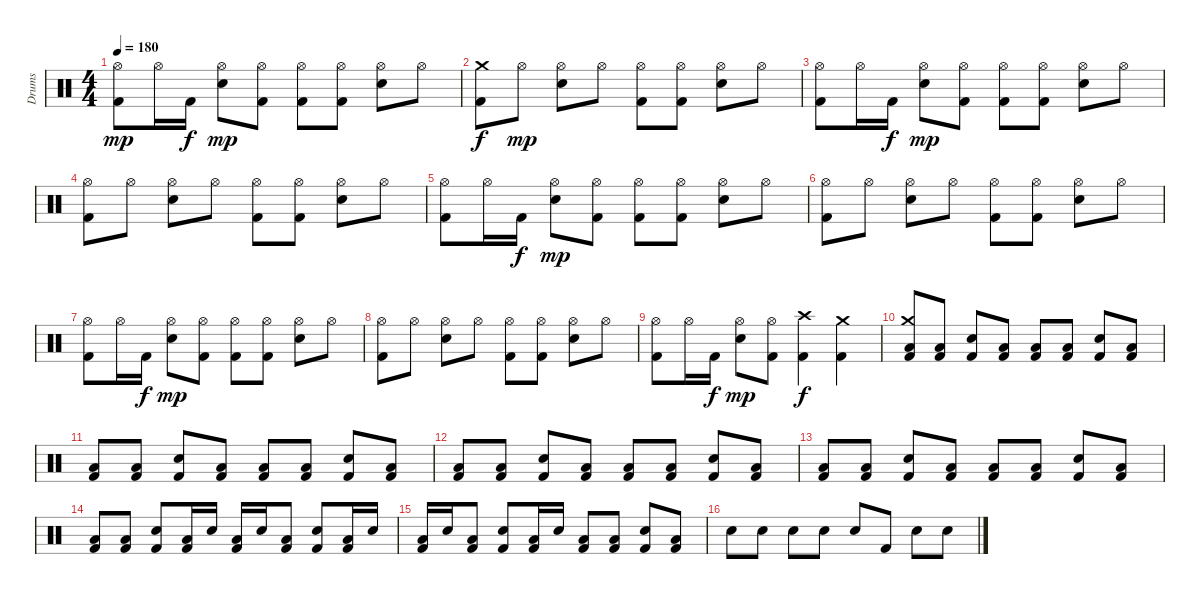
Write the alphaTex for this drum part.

\track ("Drums" "Drums") {instrument percussion}
\staff {score}
\articulation defaults
\ts (4 4)
\tempo 180
\clef neutral
\ks c
("Hi-Hat (open)" "Kick (hit) 2").8{dy mp} "Hi-Hat (open)".16 "Kick (hit) 2".16{dy f} ("Hi-Hat (open)" "Snare (hit) 2").8{dy mp} ("Hi-Hat (open)" "Kick (hit) 2").8 ("Hi-Hat (open)" "Kick (hit) 2").8 ("Hi-Hat (open)" "Kick (hit) 2").8 ("Hi-Hat (open)" "Snare (hit) 2").8 "Hi-Hat (open)".8 |
("Crash medium (hit)" "Kick (hit) 2").8{dy f} "Hi-Hat (open)".8{dy mp} ("Hi-Hat (open)" "Snare (hit) 2").8 "Hi-Hat (open)".8 ("Hi-Hat (open)" "Kick (hit) 2").8 ("Hi-Hat (open)" "Kick (hit) 2").8 ("Hi-Hat (open)" "Snare (hit) 2").8 "Hi-Hat (open)".8 |
("Hi-Hat (open)" "Kick (hit) 2").8 "Hi-Hat (open)".16 "Kick (hit) 2".16{dy f} ("Hi-Hat (open)" "Snare (hit) 2").8{dy mp} ("Hi-Hat (open)" "Kick (hit) 2").8 ("Hi-Hat (open)" "Kick (hit) 2").8 ("Hi-Hat (open)" "Kick (hit) 2").8 ("Hi-Hat (open)" "Snare (hit) 2").8 "Hi-Hat (open)".8 |
("Hi-Hat (open)" "Kick (hit) 2").8 "Hi-Hat (open)".8 ("Hi-Hat (open)" "Snare (hit) 2").8 "Hi-Hat (open)".8 ("Hi-Hat (open)" "Kick (hit) 2").8 ("Hi-Hat (open)" "Kick (hit) 2").8 ("Hi-Hat (open)" "Snare (hit) 2").8 "Hi-Hat (open)".8 |
("Hi-Hat (open)" "Kick (hit) 2").8 "Hi-Hat (open)".16 "Kick (hit) 2".16{dy f} ("Hi-Hat (open)" "Snare (hit) 2").8{dy mp} ("Hi-Hat (open)" "Kick (hit) 2").8 ("Hi-Hat (open)" "Kick (hit) 2").8 ("Hi-Hat (open)" "Kick (hit) 2").8 ("Hi-Hat (open)" "Snare (hit) 2").8 "Hi-Hat (open)".8 |
("Hi-Hat (open)" "Kick (hit) 2").8 "Hi-Hat (open)".8 ("Hi-Hat (open)" "Snare (hit) 2").8 "Hi-Hat (open)".8 ("Hi-Hat (open)" "Kick (hit) 2").8 ("Hi-Hat (open)" "Kick (hit) 2").8 ("Hi-Hat (open)" "Snare (hit) 2").8 "Hi-Hat (open)".8 |
("Hi-Hat (open)" "Kick (hit) 2").8 "Hi-Hat (open)".16 "Kick (hit) 2".16{dy f} ("Hi-Hat (open)" "Snare (hit) 2").8{dy mp} ("Hi-Hat (open)" "Kick (hit) 2").8 ("Hi-Hat (open)" "Kick (hit) 2").8 ("Hi-Hat (open)" "Kick (hit) 2").8 ("Hi-Hat (open)" "Snare (hit) 2").8 "Hi-Hat (open)".8 |
("Hi-Hat (open)" "Kick (hit) 2").8 "Hi-Hat (open)".8 ("Hi-Hat (open)" "Snare (hit) 2").8 "Hi-Hat (open)".8 ("Hi-Hat (open)" "Kick (hit) 2").8 ("Hi-Hat (open)" "Kick (hit) 2").8 ("Hi-Hat (open)" "Snare (hit) 2").8 "Hi-Hat (open)".8 |
("Hi-Hat (open)" "Kick (hit) 2").8 "Hi-Hat (open)".16 "Kick (hit) 2".16{dy f} ("Hi-Hat (open)" "Snare (hit) 2").8{dy mp} ("Hi-Hat (open)" "Kick (hit) 2").8 ("Crash high (hit)" "Kick (hit) 2").4{dy f} ("Crash medium (hit)" "Kick (hit) 2").4 |
("Crash medium (hit)" "Low Floor Tom (hit)" "Kick (hit) 2").8 ("Low Floor Tom (hit)" "Kick (hit) 2").8 ("Snare (hit) 2" "Kick (hit) 2").8 ("Low Floor Tom (hit)" "Kick (hit) 2").8 ("Low Floor Tom (hit)" "Kick (hit) 2").8 ("Low Floor Tom (hit)" "Kick (hit) 2").8 ("Snare (hit) 2" "Kick (hit) 2").8 ("Low Floor Tom (hit)" "Kick (hit) 2").8 |
("Low Floor Tom (hit)" "Kick (hit) 2").8 ("Low Floor Tom (hit)" "Kick (hit) 2").8 ("Snare (hit) 2" "Kick (hit) 2").8 ("Low Floor Tom (hit)" "Kick (hit) 2").8 ("Low Floor Tom (hit)" "Kick (hit) 2").8 ("Low Floor Tom (hit)" "Kick (hit) 2").8 ("Snare (hit) 2" "Kick (hit) 2").8 ("Low Floor Tom (hit)" "Kick (hit) 2").8 |
("Low Floor Tom (hit)" "Kick (hit) 2").8 ("Low Floor Tom (hit)" "Kick (hit) 2").8 ("Snare (hit) 2" "Kick (hit) 2").8 ("Low Floor Tom (hit)" "Kick (hit) 2").8 ("Low Floor Tom (hit)" "Kick (hit) 2").8 ("Low Floor Tom (hit)" "Kick (hit) 2").8 ("Snare (hit) 2" "Kick (hit) 2").8 ("Low Floor Tom (hit)" "Kick (hit) 2").8 |
("Low Floor Tom (hit)" "Kick (hit) 2").8 ("Low Floor Tom (hit)" "Kick (hit) 2").8 ("Snare (hit) 2" "Kick (hit) 2").8 ("Low Floor Tom (hit)" "Kick (hit) 2").8 ("Low Floor Tom (hit)" "Kick (hit) 2").8 ("Low Floor Tom (hit)" "Kick (hit) 2").8 ("Snare (hit) 2" "Kick (hit) 2").8 ("Low Floor Tom (hit)" "Kick (hit) 2").8 |
("Low Floor Tom (hit)" "Kick (hit) 2").8 ("Low Floor Tom (hit)" "Kick (hit) 2").8 ("Snare (hit) 2" "Kick (hit) 2").8 ("Low Floor Tom (hit)" "Kick (hit) 2").16 "Snare (hit) 2".16 ("Low Floor Tom (hit)" "Kick (hit) 2").16 "Snare (hit) 2".16 ("Low Floor Tom (hit)" "Kick (hit) 2").8 ("Snare (hit) 2" "Kick (hit) 2").8 ("Low Floor Tom (hit)" "Kick (hit) 2").16 "Snare (hit) 2".16 |
("Low Floor Tom (hit)" "Kick (hit) 2").16 "Snare (hit) 2".16 ("Low Floor Tom (hit)" "Kick (hit) 2").8 ("Snare (hit) 2" "Kick (hit) 2").8 ("Low Floor Tom (hit)" "Kick (hit) 2").16 "Snare (hit) 2".16 ("Low Floor Tom (hit)" "Kick (hit) 2").8 ("Low Floor Tom (hit)" "Kick (hit) 2").8 ("Snare (hit) 2" "Kick (hit) 2").8 ("Low Floor Tom (hit)" "Kick (hit) 2").8 |
"Snare (hit) 2".8 "Snare (hit) 2".8 "Snare (hit) 2".8 "Snare (hit) 2".8 "Snare (hit) 2".8 "Kick (hit) 2".8 "Snare (hit) 2".8 "Snare (hit) 2".8
